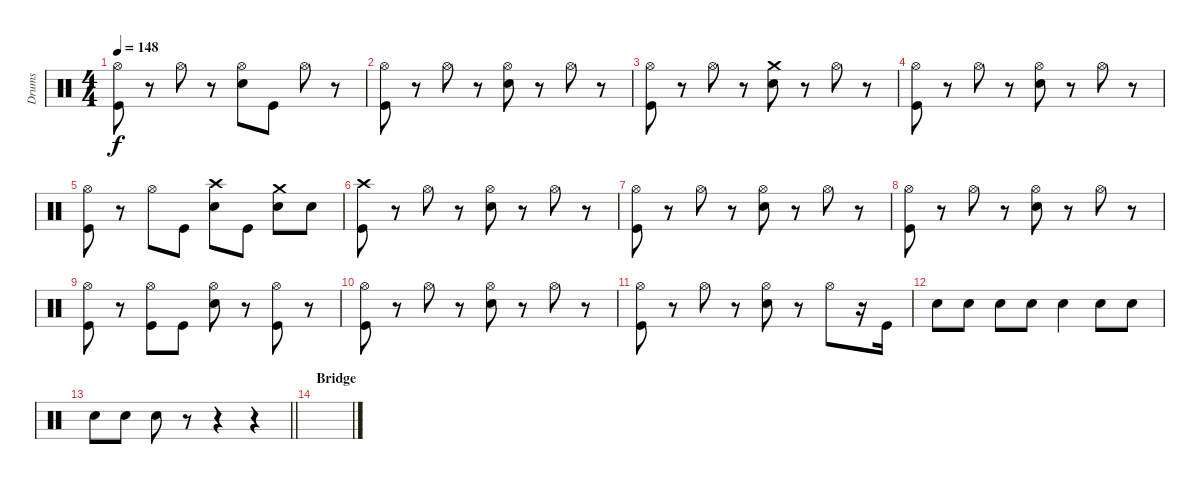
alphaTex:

\track ("Drums" "Drums") {instrument percussion}
\staff {score}
\articulation defaults
\ts (4 4)
\tempo 148
\clef neutral
\ks c
("Hi-Hat (open)" "Kick (hit)").8{dy f} r.8 "Hi-Hat (open)".8 r.8 ("Hi-Hat (open)" "Snare (hit) 2").8 "Kick (hit)".8 "Hi-Hat (open)".8 r.8 |
("Hi-Hat (open)" "Kick (hit)").8 r.8 "Hi-Hat (open)".8 r.8 ("Hi-Hat (open)" "Snare (hit) 2").8 r.8 "Hi-Hat (open)".8 r.8 |
("Hi-Hat (open)" "Kick (hit)").8 r.8 "Hi-Hat (open)".8 r.8 ("Crash medium (hit)" "Snare (hit) 2").8 r.8 "Hi-Hat (open)".8 r.8 |
("Hi-Hat (open)" "Kick (hit)").8 r.8 "Hi-Hat (open)".8 r.8 ("Hi-Hat (open)" "Snare (hit) 2").8 r.8 "Hi-Hat (open)".8 r.8 |
("Hi-Hat (open)" "Kick (hit)").8 r.8 "Hi-Hat (open)".8 "Kick (hit)".8 ("Snare (hit) 2" "Crash high (hit)").8 "Kick (hit)".8 ("Crash medium (hit)" "Snare (hit) 2").8 "Snare (hit) 2".8 |
("Crash high (hit)" "Kick (hit)").8 r.8 "Hi-Hat (open)".8 r.8 ("Hi-Hat (open)" "Snare (hit) 2").8 r.8 "Hi-Hat (open)".8 r.8 |
("Hi-Hat (open)" "Kick (hit)").8 r.8 "Hi-Hat (open)".8 r.8 ("Hi-Hat (open)" "Snare (hit) 2").8 r.8 "Hi-Hat (open)".8 r.8 |
("Hi-Hat (open)" "Kick (hit)").8 r.8 "Hi-Hat (open)".8 r.8 ("Hi-Hat (open)" "Snare (hit) 2").8 r.8 "Hi-Hat (open)".8 r.8 |
("Hi-Hat (open)" "Kick (hit)").8 r.8 ("Hi-Hat (open)" "Kick (hit)").8 "Kick (hit)".8 ("Hi-Hat (open)" "Snare (hit) 2").8 r.8 ("Hi-Hat (open)" "Kick (hit)").8 r.8 |
("Hi-Hat (open)" "Kick (hit)").8 r.8 "Hi-Hat (open)".8 r.8 ("Hi-Hat (open)" "Snare (hit) 2").8 r.8 "Hi-Hat (open)".8 r.8 |
("Hi-Hat (open)" "Kick (hit)").8 r.8 "Hi-Hat (open)".8 r.8 ("Hi-Hat (open)" "Snare (hit) 2").8 r.8 "Hi-Hat (open)".8 r.16 "Kick (hit)".16 |
"Snare (hit) 2".8 "Snare (hit) 2".8 "Snare (hit) 2".8 "Snare (hit) 2".8 "Snare (hit) 2".4 "Snare (hit) 2".8 "Snare (hit) 2".8 |
\barLineRight lightlight "Snare (hit) 2".8 "Snare (hit) 2".8 "Snare (hit) 2".8
r.8 r.4 r.4 |
\section ("" "Bridge")
